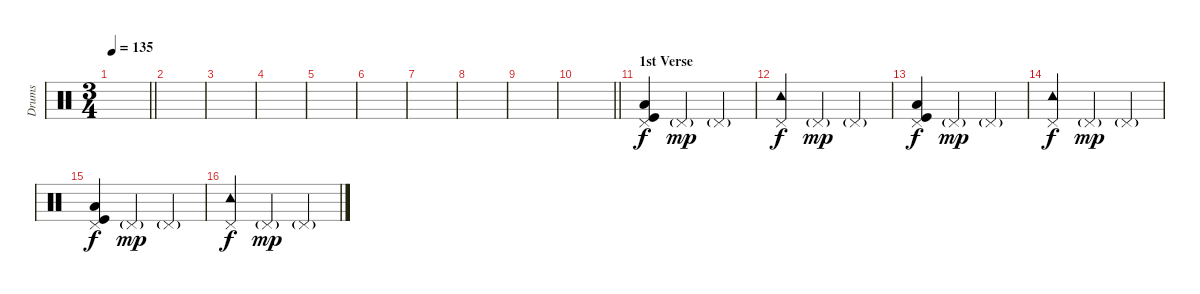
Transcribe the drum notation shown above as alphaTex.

\track ("Drums" "Drums") {instrument percussion}
\staff {score}
\articulation defaults
\ts (3 4)
\tempo 135
\clef neutral
\barLineRight lightlight
\ks c
|
|
|
|
|
|
|
|
|
\barLineRight lightlight
|
\section ("" "1st Verse")
("Pedal Hi-Hat (hit)" "Low Floor Tom (hit)" "Kick (hit)").4 "Pedal Hi-Hat (hit)"{g}.4{dy mp} "Pedal Hi-Hat (hit)"{g}.4 |
("Pedal Hi-Hat (hit)" "Tambourine (hit)").4{dy f} "Pedal Hi-Hat (hit)"{g}.4{dy mp} "Pedal Hi-Hat (hit)"{g}.4 |
("Pedal Hi-Hat (hit)" "Low Floor Tom (hit)" "Kick (hit)").4{dy f} "Pedal Hi-Hat (hit)"{g}.4{dy mp} "Pedal Hi-Hat (hit)"{g}.4 |
("Pedal Hi-Hat (hit)" "Tambourine (hit)").4{dy f} "Pedal Hi-Hat (hit)"{g}.4{dy mp} "Pedal Hi-Hat (hit)"{g}.4 |
("Pedal Hi-Hat (hit)" "Low Floor Tom (hit)" "Kick (hit)").4{dy f} "Pedal Hi-Hat (hit)"{g}.4{dy mp} "Pedal Hi-Hat (hit)"{g}.4 |
("Pedal Hi-Hat (hit)" "Tambourine (hit)").4{dy f} "Pedal Hi-Hat (hit)"{g}.4{dy mp} "Pedal Hi-Hat (hit)"{g}.4
